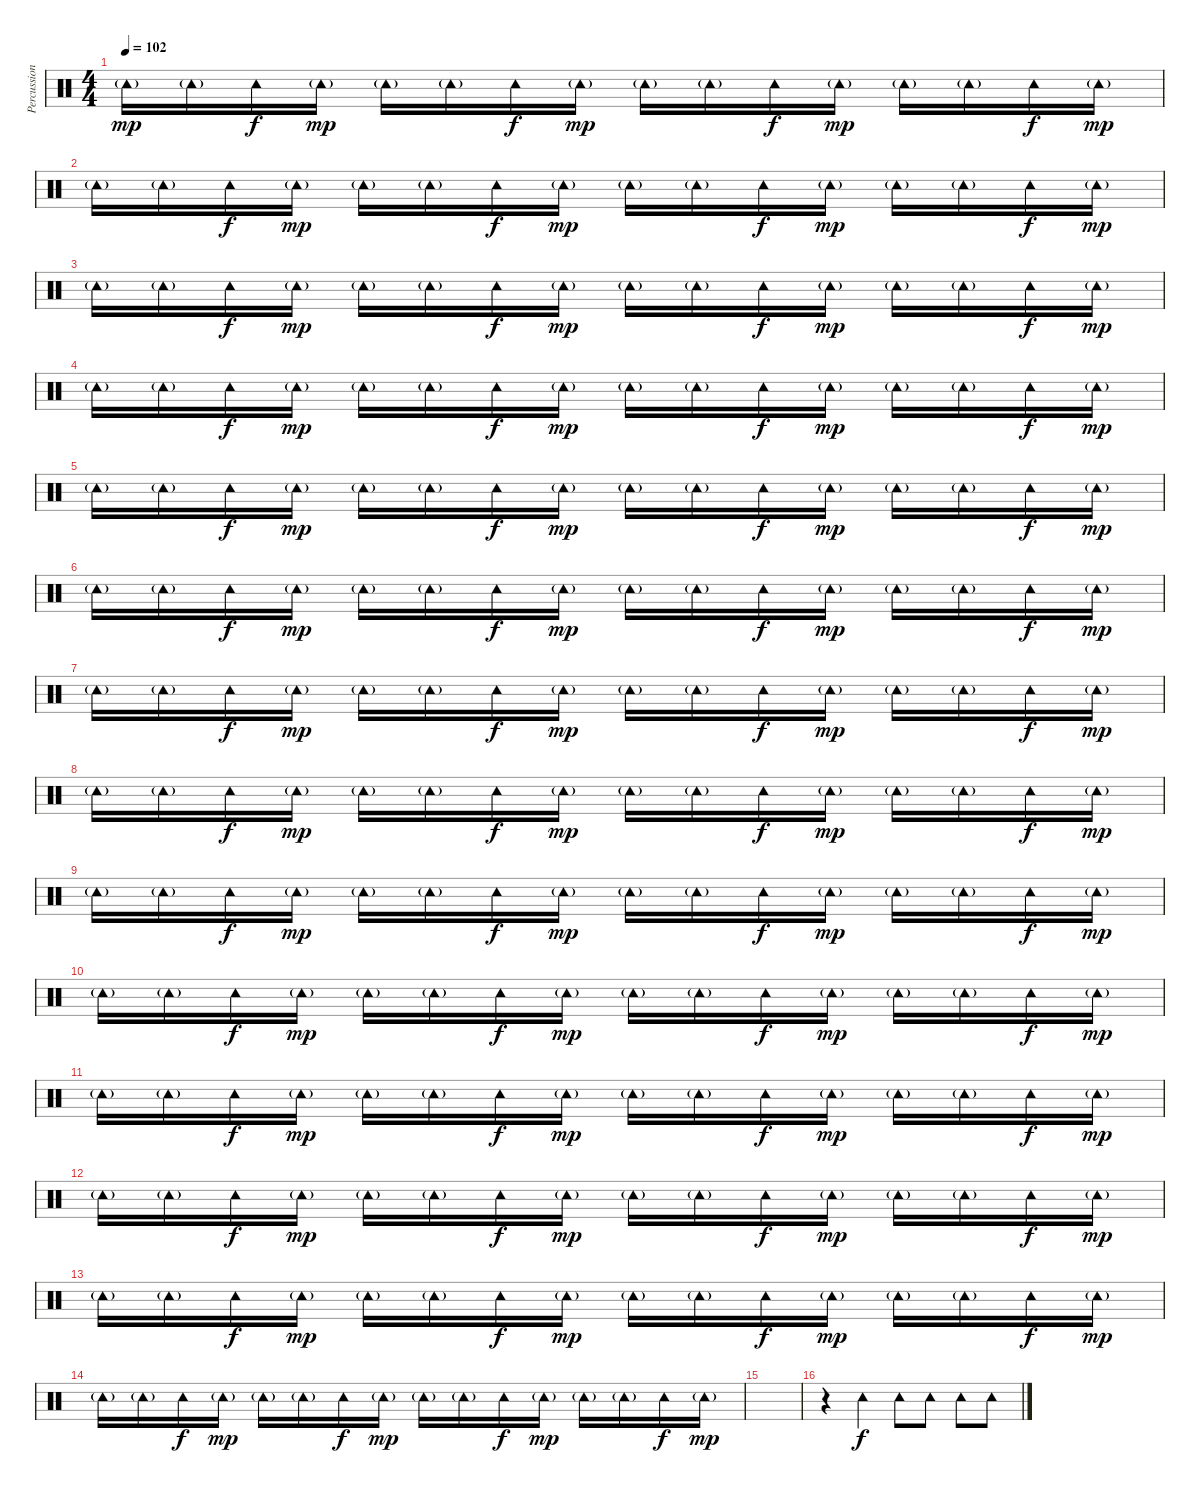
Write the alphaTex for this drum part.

\track ("Percussion" "Percussion") {instrument percussion}
\staff {score}
\articulation defaults
\ts (4 4)
\tempo 102
\clef neutral
\ks c "Tambourine (hit)"{g}.16{dy mp} "Tambourine (hit)"{g}.16 "Tambourine (hit)".16{dy f} "Tambourine (hit)"{g}.16{dy mp} "Tambourine (hit)"{g}.16 "Tambourine (hit)"{g}.16 "Tambourine (hit)".16{dy f} "Tambourine (hit)"{g}.16{dy mp} "Tambourine (hit)"{g}.16 "Tambourine (hit)"{g}.16 "Tambourine (hit)".16{dy f} "Tambourine (hit)"{g}.16{dy mp} "Tambourine (hit)"{g}.16 "Tambourine (hit)"{g}.16 "Tambourine (hit)".16{dy f} "Tambourine (hit)"{g}.16{dy mp}
|
"Tambourine (hit)"{g}.16 "Tambourine (hit)"{g}.16 "Tambourine (hit)".16{dy f} "Tambourine (hit)"{g}.16{dy mp} "Tambourine (hit)"{g}.16 "Tambourine (hit)"{g}.16 "Tambourine (hit)".16{dy f} "Tambourine (hit)"{g}.16{dy mp} "Tambourine (hit)"{g}.16 "Tambourine (hit)"{g}.16 "Tambourine (hit)".16{dy f} "Tambourine (hit)"{g}.16{dy mp} "Tambourine (hit)"{g}.16 "Tambourine (hit)"{g}.16 "Tambourine (hit)".16{dy f} "Tambourine (hit)"{g}.16{dy mp} |
"Tambourine (hit)"{g}.16 "Tambourine (hit)"{g}.16 "Tambourine (hit)".16{dy f} "Tambourine (hit)"{g}.16{dy mp} "Tambourine (hit)"{g}.16 "Tambourine (hit)"{g}.16 "Tambourine (hit)".16{dy f} "Tambourine (hit)"{g}.16{dy mp} "Tambourine (hit)"{g}.16 "Tambourine (hit)"{g}.16 "Tambourine (hit)".16{dy f} "Tambourine (hit)"{g}.16{dy mp} "Tambourine (hit)"{g}.16 "Tambourine (hit)"{g}.16 "Tambourine (hit)".16{dy f} "Tambourine (hit)"{g}.16{dy mp} |
"Tambourine (hit)"{g}.16 "Tambourine (hit)"{g}.16 "Tambourine (hit)".16{dy f} "Tambourine (hit)"{g}.16{dy mp} "Tambourine (hit)"{g}.16 "Tambourine (hit)"{g}.16 "Tambourine (hit)".16{dy f} "Tambourine (hit)"{g}.16{dy mp} "Tambourine (hit)"{g}.16 "Tambourine (hit)"{g}.16 "Tambourine (hit)".16{dy f} "Tambourine (hit)"{g}.16{dy mp} "Tambourine (hit)"{g}.16 "Tambourine (hit)"{g}.16 "Tambourine (hit)".16{dy f} "Tambourine (hit)"{g}.16{dy mp} |
"Tambourine (hit)"{g}.16 "Tambourine (hit)"{g}.16 "Tambourine (hit)".16{dy f} "Tambourine (hit)"{g}.16{dy mp} "Tambourine (hit)"{g}.16 "Tambourine (hit)"{g}.16 "Tambourine (hit)".16{dy f} "Tambourine (hit)"{g}.16{dy mp} "Tambourine (hit)"{g}.16 "Tambourine (hit)"{g}.16 "Tambourine (hit)".16{dy f} "Tambourine (hit)"{g}.16{dy mp} "Tambourine (hit)"{g}.16 "Tambourine (hit)"{g}.16 "Tambourine (hit)".16{dy f} "Tambourine (hit)"{g}.16{dy mp} |
"Tambourine (hit)"{g}.16 "Tambourine (hit)"{g}.16 "Tambourine (hit)".16{dy f} "Tambourine (hit)"{g}.16{dy mp} "Tambourine (hit)"{g}.16 "Tambourine (hit)"{g}.16 "Tambourine (hit)".16{dy f} "Tambourine (hit)"{g}.16{dy mp} "Tambourine (hit)"{g}.16 "Tambourine (hit)"{g}.16 "Tambourine (hit)".16{dy f} "Tambourine (hit)"{g}.16{dy mp} "Tambourine (hit)"{g}.16 "Tambourine (hit)"{g}.16 "Tambourine (hit)".16{dy f} "Tambourine (hit)"{g}.16{dy mp} |
"Tambourine (hit)"{g}.16 "Tambourine (hit)"{g}.16 "Tambourine (hit)".16{dy f} "Tambourine (hit)"{g}.16{dy mp} "Tambourine (hit)"{g}.16 "Tambourine (hit)"{g}.16 "Tambourine (hit)".16{dy f} "Tambourine (hit)"{g}.16{dy mp} "Tambourine (hit)"{g}.16 "Tambourine (hit)"{g}.16 "Tambourine (hit)".16{dy f} "Tambourine (hit)"{g}.16{dy mp} "Tambourine (hit)"{g}.16 "Tambourine (hit)"{g}.16 "Tambourine (hit)".16{dy f} "Tambourine (hit)"{g}.16{dy mp} |
"Tambourine (hit)"{g}.16 "Tambourine (hit)"{g}.16 "Tambourine (hit)".16{dy f} "Tambourine (hit)"{g}.16{dy mp} "Tambourine (hit)"{g}.16 "Tambourine (hit)"{g}.16 "Tambourine (hit)".16{dy f} "Tambourine (hit)"{g}.16{dy mp} "Tambourine (hit)"{g}.16 "Tambourine (hit)"{g}.16 "Tambourine (hit)".16{dy f} "Tambourine (hit)"{g}.16{dy mp} "Tambourine (hit)"{g}.16 "Tambourine (hit)"{g}.16 "Tambourine (hit)".16{dy f} "Tambourine (hit)"{g}.16{dy mp} |
"Tambourine (hit)"{g}.16 "Tambourine (hit)"{g}.16 "Tambourine (hit)".16{dy f} "Tambourine (hit)"{g}.16{dy mp} "Tambourine (hit)"{g}.16 "Tambourine (hit)"{g}.16 "Tambourine (hit)".16{dy f} "Tambourine (hit)"{g}.16{dy mp} "Tambourine (hit)"{g}.16 "Tambourine (hit)"{g}.16 "Tambourine (hit)".16{dy f} "Tambourine (hit)"{g}.16{dy mp} "Tambourine (hit)"{g}.16 "Tambourine (hit)"{g}.16 "Tambourine (hit)".16{dy f} "Tambourine (hit)"{g}.16{dy mp} |
"Tambourine (hit)"{g}.16 "Tambourine (hit)"{g}.16 "Tambourine (hit)".16{dy f} "Tambourine (hit)"{g}.16{dy mp} "Tambourine (hit)"{g}.16 "Tambourine (hit)"{g}.16 "Tambourine (hit)".16{dy f} "Tambourine (hit)"{g}.16{dy mp} "Tambourine (hit)"{g}.16 "Tambourine (hit)"{g}.16 "Tambourine (hit)".16{dy f} "Tambourine (hit)"{g}.16{dy mp} "Tambourine (hit)"{g}.16 "Tambourine (hit)"{g}.16 "Tambourine (hit)".16{dy f} "Tambourine (hit)"{g}.16{dy mp} |
"Tambourine (hit)"{g}.16 "Tambourine (hit)"{g}.16 "Tambourine (hit)".16{dy f} "Tambourine (hit)"{g}.16{dy mp} "Tambourine (hit)"{g}.16 "Tambourine (hit)"{g}.16 "Tambourine (hit)".16{dy f} "Tambourine (hit)"{g}.16{dy mp} "Tambourine (hit)"{g}.16 "Tambourine (hit)"{g}.16 "Tambourine (hit)".16{dy f} "Tambourine (hit)"{g}.16{dy mp} "Tambourine (hit)"{g}.16 "Tambourine (hit)"{g}.16 "Tambourine (hit)".16{dy f} "Tambourine (hit)"{g}.16{dy mp} |
"Tambourine (hit)"{g}.16 "Tambourine (hit)"{g}.16 "Tambourine (hit)".16{dy f} "Tambourine (hit)"{g}.16{dy mp} "Tambourine (hit)"{g}.16 "Tambourine (hit)"{g}.16 "Tambourine (hit)".16{dy f} "Tambourine (hit)"{g}.16{dy mp} "Tambourine (hit)"{g}.16 "Tambourine (hit)"{g}.16 "Tambourine (hit)".16{dy f} "Tambourine (hit)"{g}.16{dy mp} "Tambourine (hit)"{g}.16 "Tambourine (hit)"{g}.16 "Tambourine (hit)".16{dy f} "Tambourine (hit)"{g}.16{dy mp} |
"Tambourine (hit)"{g}.16 "Tambourine (hit)"{g}.16 "Tambourine (hit)".16{dy f} "Tambourine (hit)"{g}.16{dy mp} "Tambourine (hit)"{g}.16 "Tambourine (hit)"{g}.16 "Tambourine (hit)".16{dy f} "Tambourine (hit)"{g}.16{dy mp} "Tambourine (hit)"{g}.16 "Tambourine (hit)"{g}.16 "Tambourine (hit)".16{dy f} "Tambourine (hit)"{g}.16{dy mp} "Tambourine (hit)"{g}.16 "Tambourine (hit)"{g}.16 "Tambourine (hit)".16{dy f} "Tambourine (hit)"{g}.16{dy mp} |
"Tambourine (hit)"{g}.16 "Tambourine (hit)"{g}.16 "Tambourine (hit)".16{dy f} "Tambourine (hit)"{g}.16{dy mp} "Tambourine (hit)"{g}.16 "Tambourine (hit)"{g}.16 "Tambourine (hit)".16{dy f} "Tambourine (hit)"{g}.16{dy mp} "Tambourine (hit)"{g}.16 "Tambourine (hit)"{g}.16 "Tambourine (hit)".16{dy f} "Tambourine (hit)"{g}.16{dy mp} "Tambourine (hit)"{g}.16 "Tambourine (hit)"{g}.16 "Tambourine (hit)".16{dy f} "Tambourine (hit)"{g}.16{dy mp} |
|
r.4 "Tambourine (hit)".4{dy f} "Tambourine (hit)".8 "Tambourine (hit)".8 "Tambourine (hit)".8 "Tambourine (hit)".8
